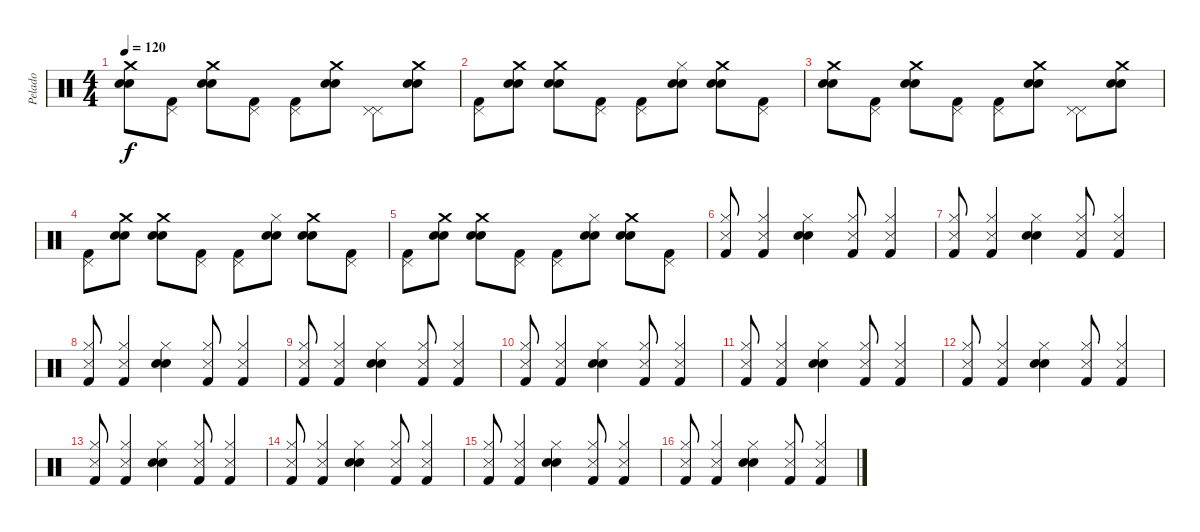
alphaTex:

\track ("Pelado" "Pelado") {instrument percussion}
\staff {score}
\articulation defaults
\ts (4 4)
\tempo 120
\clef neutral
\ks c
("Crash medium (hit)" "Snare (hit) 2" "Snare (hit) 2").8{dy f} ("Pedal Hi-Hat (hit)" "Kick (hit) 2").8 ("Crash medium (hit)" "Snare (hit) 2" "Snare (hit) 2").8 ("Pedal Hi-Hat (hit)" "Kick (hit) 2").8 ("Pedal Hi-Hat (hit)" "Kick (hit) 2").8 ("Crash medium (hit)" "Snare (hit) 2" "Snare (hit) 2").8 ("Pedal Hi-Hat (hit)" "Pedal Hi-Hat (hit)").8 ("Crash medium (hit)" "Snare (hit) 2" "Snare (hit) 2").8 |
("Pedal Hi-Hat (hit)" "Kick (hit) 2").8 ("Crash medium (hit)" "Snare (hit) 2" "Snare (hit) 2").8 ("Crash medium (hit)" "Snare (hit) 2" "Snare (hit) 2").8 ("Pedal Hi-Hat (hit)" "Kick (hit) 2").8 ("Pedal Hi-Hat (hit)" "Kick (hit) 2").8 ("Hi-Hat (closed)" "Snare (hit) 2" "Snare (hit) 2").8 ("Crash medium (hit)" "Snare (hit) 2" "Snare (hit) 2").8 ("Pedal Hi-Hat (hit)" "Kick (hit) 2").8 |
("Crash medium (hit)" "Snare (hit) 2" "Snare (hit) 2").8 ("Pedal Hi-Hat (hit)" "Kick (hit) 2").8 ("Crash medium (hit)" "Snare (hit) 2" "Snare (hit) 2").8 ("Pedal Hi-Hat (hit)" "Kick (hit) 2").8 ("Pedal Hi-Hat (hit)" "Kick (hit) 2").8 ("Crash medium (hit)" "Snare (hit) 2" "Snare (hit) 2").8 ("Pedal Hi-Hat (hit)" "Pedal Hi-Hat (hit)").8 ("Crash medium (hit)" "Snare (hit) 2" "Snare (hit) 2").8 |
("Pedal Hi-Hat (hit)" "Kick (hit) 2").8 ("Crash medium (hit)" "Snare (hit) 2" "Snare (hit) 2").8 ("Crash medium (hit)" "Snare (hit) 2" "Snare (hit) 2").8 ("Pedal Hi-Hat (hit)" "Kick (hit) 2").8 ("Pedal Hi-Hat (hit)" "Kick (hit) 2").8 ("Hi-Hat (closed)" "Snare (hit) 2" "Snare (hit) 2").8 ("Crash medium (hit)" "Snare (hit) 2" "Snare (hit) 2").8 ("Pedal Hi-Hat (hit)" "Kick (hit) 2").8 |
("Pedal Hi-Hat (hit)" "Kick (hit) 2").8 ("Crash medium (hit)" "Snare (hit) 2" "Snare (hit) 2").8 ("Crash medium (hit)" "Snare (hit) 2" "Snare (hit) 2").8 ("Pedal Hi-Hat (hit)" "Kick (hit) 2").8 ("Pedal Hi-Hat (hit)" "Kick (hit) 2").8 ("Hi-Hat (closed)" "Snare (hit) 2" "Snare (hit) 2").8 ("Crash medium (hit)" "Snare (hit) 2" "Snare (hit) 2").8 ("Pedal Hi-Hat (hit)" "Kick (hit) 2").8 |
("Hi-Hat (closed)" "Snare (side stick) 3" "Kick (hit) 2").8 ("Hi-Hat (closed)" "Snare (side stick) 3" "Kick (hit) 2").4 ("Hi-Hat (closed)" "Hand Clap (hit)" "Hand Clap (hit)").4 ("Hi-Hat (closed)" "Snare (side stick) 3" "Kick (hit) 2").8 ("Hi-Hat (closed)" "Snare (side stick) 3" "Kick (hit) 2").4 |
("Hi-Hat (closed)" "Snare (side stick) 3" "Kick (hit) 2").8 ("Hi-Hat (closed)" "Snare (side stick) 3" "Kick (hit) 2").4 ("Hi-Hat (closed)" "Hand Clap (hit)" "Hand Clap (hit)").4 ("Hi-Hat (closed)" "Snare (side stick) 3" "Kick (hit) 2").8 ("Hi-Hat (closed)" "Snare (side stick) 3" "Kick (hit) 2").4 |
("Hi-Hat (closed)" "Snare (side stick) 3" "Kick (hit) 2").8 ("Hi-Hat (closed)" "Snare (side stick) 3" "Kick (hit) 2").4 ("Hi-Hat (closed)" "Hand Clap (hit)" "Hand Clap (hit)").4 ("Hi-Hat (closed)" "Snare (side stick) 3" "Kick (hit) 2").8 ("Hi-Hat (closed)" "Snare (side stick) 3" "Kick (hit) 2").4 |
("Hi-Hat (closed)" "Snare (side stick) 3" "Kick (hit) 2").8 ("Hi-Hat (closed)" "Snare (side stick) 3" "Kick (hit) 2").4 ("Hi-Hat (closed)" "Hand Clap (hit)" "Hand Clap (hit)").4 ("Hi-Hat (closed)" "Snare (side stick) 3" "Kick (hit) 2").8 ("Hi-Hat (closed)" "Snare (side stick) 3" "Kick (hit) 2").4 |
("Hi-Hat (closed)" "Snare (side stick) 3" "Kick (hit) 2").8 ("Hi-Hat (closed)" "Snare (side stick) 3" "Kick (hit) 2").4 ("Hi-Hat (closed)" "Hand Clap (hit)" "Hand Clap (hit)").4 ("Hi-Hat (closed)" "Snare (side stick) 3" "Kick (hit) 2").8 ("Hi-Hat (closed)" "Snare (side stick) 3" "Kick (hit) 2").4 |
("Hi-Hat (closed)" "Snare (side stick) 3" "Kick (hit) 2").8 ("Hi-Hat (closed)" "Snare (side stick) 3" "Kick (hit) 2").4 ("Hi-Hat (closed)" "Hand Clap (hit)" "Hand Clap (hit)").4 ("Hi-Hat (closed)" "Snare (side stick) 3" "Kick (hit) 2").8 ("Hi-Hat (closed)" "Snare (side stick) 3" "Kick (hit) 2").4 |
("Hi-Hat (closed)" "Snare (side stick) 3" "Kick (hit) 2").8 ("Hi-Hat (closed)" "Snare (side stick) 3" "Kick (hit) 2").4 ("Hi-Hat (closed)" "Hand Clap (hit)" "Hand Clap (hit)").4 ("Hi-Hat (closed)" "Snare (side stick) 3" "Kick (hit) 2").8 ("Hi-Hat (closed)" "Snare (side stick) 3" "Kick (hit) 2").4 |
("Hi-Hat (closed)" "Snare (side stick) 3" "Kick (hit) 2").8 ("Hi-Hat (closed)" "Snare (side stick) 3" "Kick (hit) 2").4 ("Hi-Hat (closed)" "Hand Clap (hit)" "Hand Clap (hit)").4 ("Hi-Hat (closed)" "Snare (side stick) 3" "Kick (hit) 2").8 ("Hi-Hat (closed)" "Snare (side stick) 3" "Kick (hit) 2").4 |
("Hi-Hat (closed)" "Snare (side stick) 3" "Kick (hit) 2").8 ("Hi-Hat (closed)" "Snare (side stick) 3" "Kick (hit) 2").4 ("Hi-Hat (closed)" "Hand Clap (hit)" "Hand Clap (hit)").4 ("Hi-Hat (closed)" "Snare (side stick) 3" "Kick (hit) 2").8 ("Hi-Hat (closed)" "Snare (side stick) 3" "Kick (hit) 2").4 |
("Hi-Hat (closed)" "Snare (side stick) 3" "Kick (hit) 2").8 ("Hi-Hat (closed)" "Snare (side stick) 3" "Kick (hit) 2").4 ("Hi-Hat (closed)" "Hand Clap (hit)" "Hand Clap (hit)").4 ("Hi-Hat (closed)" "Snare (side stick) 3" "Kick (hit) 2").8 ("Hi-Hat (closed)" "Snare (side stick) 3" "Kick (hit) 2").4 |
("Hi-Hat (closed)" "Snare (side stick) 3" "Kick (hit) 2").8 ("Hi-Hat (closed)" "Snare (side stick) 3" "Kick (hit) 2").4 ("Hi-Hat (closed)" "Hand Clap (hit)" "Hand Clap (hit)").4 ("Hi-Hat (closed)" "Snare (side stick) 3" "Kick (hit) 2").8 ("Hi-Hat (closed)" "Snare (side stick) 3" "Kick (hit) 2").4
